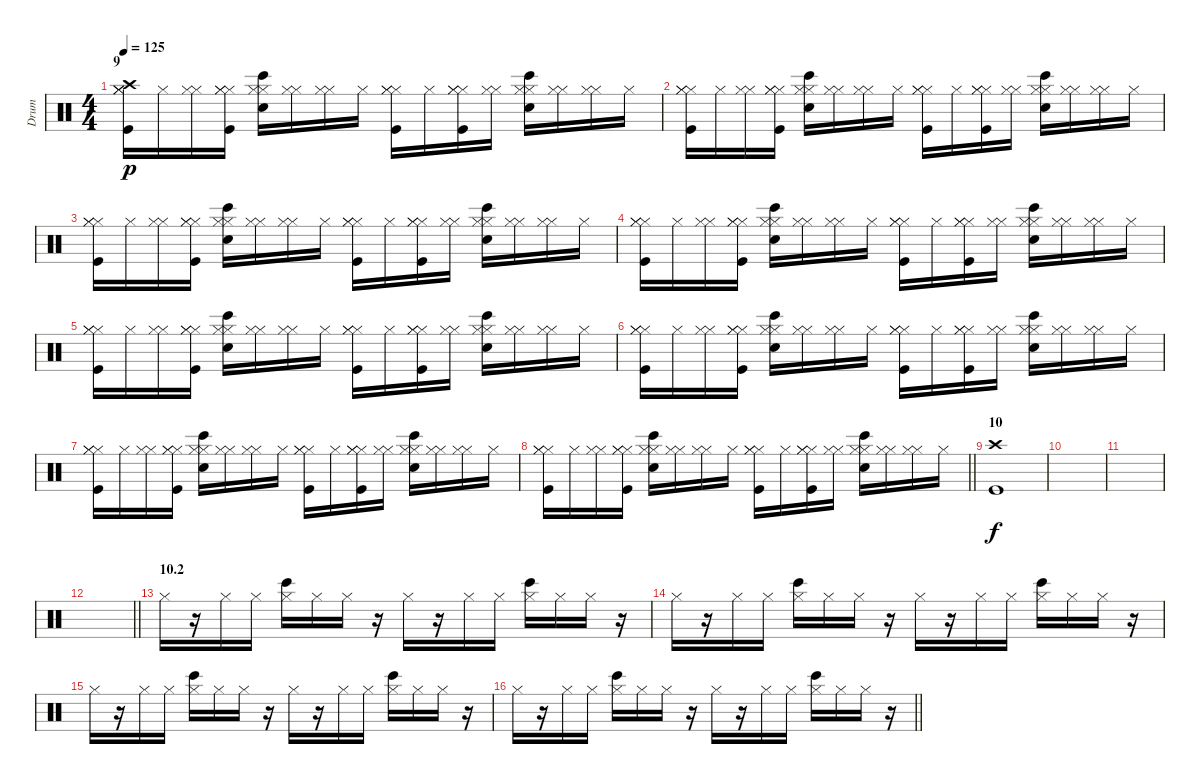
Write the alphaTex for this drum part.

\track ("Drum" "Drum") {instrument percussion}
\staff {score}
\articulation defaults
\ts (4 4)
\section ("" "9")
\tempo 125
\clef neutral
\ks c
("Hi-Hat (closed)" "Kick (hit)" "Hi-Hat (closed)" "Crash high (hit)" "Hi-Hat (closed)").16{dy p} "Hi-Hat (closed)".16 ("Hi-Hat (closed)" "Hi-Hat (closed)").16 ("Hi-Hat (closed)" "Kick (hit)" "Hi-Hat (closed)" "Hi-Hat (closed)").16 ("Snare (hit) 2" "Bongo High (hit)" "Hi-Hat (closed)" "Hi-Hat (closed)").16 ("Hi-Hat (closed)" "Hi-Hat (closed)").16 ("Hi-Hat (closed)" "Hi-Hat (closed)").16 "Hi-Hat (closed)".16 ("Hi-Hat (closed)" "Kick (hit)" "Hi-Hat (closed)" "Hi-Hat (closed)").16 "Hi-Hat (closed)".16 ("Hi-Hat (closed)" "Kick (hit)" "Hi-Hat (closed)" "Hi-Hat (closed)").16 ("Hi-Hat (closed)" "Hi-Hat (closed)").16 ("Snare (hit) 2" "Bongo High (hit)" "Hi-Hat (closed)" "Hi-Hat (closed)").16 ("Hi-Hat (closed)" "Hi-Hat (closed)").16 ("Hi-Hat (closed)" "Hi-Hat (closed)").16 "Hi-Hat (closed)".16 |
("Hi-Hat (closed)" "Kick (hit)" "Hi-Hat (closed)" "Hi-Hat (closed)").16 "Hi-Hat (closed)".16 ("Hi-Hat (closed)" "Hi-Hat (closed)").16 ("Hi-Hat (closed)" "Kick (hit)" "Hi-Hat (closed)" "Hi-Hat (closed)").16 ("Snare (hit) 2" "Bongo High (hit)" "Hi-Hat (closed)" "Hi-Hat (closed)").16 ("Hi-Hat (closed)" "Hi-Hat (closed)").16 ("Hi-Hat (closed)" "Hi-Hat (closed)").16 "Hi-Hat (closed)".16 ("Hi-Hat (closed)" "Kick (hit)" "Hi-Hat (closed)" "Hi-Hat (closed)").16 "Hi-Hat (closed)".16 ("Hi-Hat (closed)" "Kick (hit)" "Hi-Hat (closed)" "Hi-Hat (closed)").16 ("Hi-Hat (closed)" "Hi-Hat (closed)").16 ("Snare (hit) 2" "Bongo High (hit)" "Hi-Hat (closed)" "Hi-Hat (closed)").16 ("Hi-Hat (closed)" "Hi-Hat (closed)").16 ("Hi-Hat (closed)" "Hi-Hat (closed)").16 "Hi-Hat (closed)".16 |
("Hi-Hat (closed)" "Kick (hit)" "Hi-Hat (closed)" "Hi-Hat (closed)").16 "Hi-Hat (closed)".16 ("Hi-Hat (closed)" "Hi-Hat (closed)").16 ("Hi-Hat (closed)" "Kick (hit)" "Hi-Hat (closed)" "Hi-Hat (closed)").16 ("Snare (hit) 2" "Bongo High (hit)" "Hi-Hat (closed)" "Hi-Hat (closed)").16 ("Hi-Hat (closed)" "Hi-Hat (closed)").16 ("Hi-Hat (closed)" "Hi-Hat (closed)").16 "Hi-Hat (closed)".16 ("Hi-Hat (closed)" "Kick (hit)" "Hi-Hat (closed)" "Hi-Hat (closed)").16 "Hi-Hat (closed)".16 ("Hi-Hat (closed)" "Kick (hit)" "Hi-Hat (closed)" "Hi-Hat (closed)").16 ("Hi-Hat (closed)" "Hi-Hat (closed)").16 ("Snare (hit) 2" "Bongo High (hit)" "Hi-Hat (closed)" "Hi-Hat (closed)").16 ("Hi-Hat (closed)" "Hi-Hat (closed)").16 ("Hi-Hat (closed)" "Hi-Hat (closed)").16 "Hi-Hat (closed)".16 |
("Hi-Hat (closed)" "Kick (hit)" "Hi-Hat (closed)" "Hi-Hat (closed)").16 "Hi-Hat (closed)".16 ("Hi-Hat (closed)" "Hi-Hat (closed)").16 ("Hi-Hat (closed)" "Kick (hit)" "Hi-Hat (closed)" "Hi-Hat (closed)").16 ("Snare (hit) 2" "Bongo High (hit)" "Hi-Hat (closed)" "Hi-Hat (closed)").16 ("Hi-Hat (closed)" "Hi-Hat (closed)").16 ("Hi-Hat (closed)" "Hi-Hat (closed)").16 "Hi-Hat (closed)".16 ("Hi-Hat (closed)" "Kick (hit)" "Hi-Hat (closed)" "Hi-Hat (closed)").16 "Hi-Hat (closed)".16 ("Hi-Hat (closed)" "Kick (hit)" "Hi-Hat (closed)" "Hi-Hat (closed)").16 ("Hi-Hat (closed)" "Hi-Hat (closed)").16 ("Snare (hit) 2" "Bongo High (hit)" "Hi-Hat (closed)" "Hi-Hat (closed)").16 ("Hi-Hat (closed)" "Hi-Hat (closed)").16 ("Hi-Hat (closed)" "Hi-Hat (closed)").16 "Hi-Hat (closed)".16 |
("Hi-Hat (closed)" "Kick (hit)" "Hi-Hat (closed)" "Hi-Hat (closed)").16 "Hi-Hat (closed)".16 ("Hi-Hat (closed)" "Hi-Hat (closed)").16 ("Hi-Hat (closed)" "Kick (hit)" "Hi-Hat (closed)" "Hi-Hat (closed)").16 ("Snare (hit) 2" "Bongo High (hit)" "Hi-Hat (closed)" "Hi-Hat (closed)").16 ("Hi-Hat (closed)" "Hi-Hat (closed)").16 ("Hi-Hat (closed)" "Hi-Hat (closed)").16 "Hi-Hat (closed)".16 ("Hi-Hat (closed)" "Kick (hit)" "Hi-Hat (closed)" "Hi-Hat (closed)").16 "Hi-Hat (closed)".16 ("Hi-Hat (closed)" "Kick (hit)" "Hi-Hat (closed)" "Hi-Hat (closed)").16 ("Hi-Hat (closed)" "Hi-Hat (closed)").16 ("Snare (hit) 2" "Bongo High (hit)" "Hi-Hat (closed)" "Hi-Hat (closed)").16 ("Hi-Hat (closed)" "Hi-Hat (closed)").16 ("Hi-Hat (closed)" "Hi-Hat (closed)").16 "Hi-Hat (closed)".16 |
("Hi-Hat (closed)" "Kick (hit)" "Hi-Hat (closed)" "Hi-Hat (closed)").16 "Hi-Hat (closed)".16 ("Hi-Hat (closed)" "Hi-Hat (closed)").16 ("Hi-Hat (closed)" "Kick (hit)" "Hi-Hat (closed)" "Hi-Hat (closed)").16 ("Snare (hit) 2" "Bongo High (hit)" "Hi-Hat (closed)" "Hi-Hat (closed)").16 ("Hi-Hat (closed)" "Hi-Hat (closed)").16 ("Hi-Hat (closed)" "Hi-Hat (closed)").16 "Hi-Hat (closed)".16 ("Hi-Hat (closed)" "Kick (hit)" "Hi-Hat (closed)" "Hi-Hat (closed)").16 "Hi-Hat (closed)".16 ("Hi-Hat (closed)" "Kick (hit)" "Hi-Hat (closed)" "Hi-Hat (closed)").16 ("Hi-Hat (closed)" "Hi-Hat (closed)").16 ("Snare (hit) 2" "Bongo High (hit)" "Hi-Hat (closed)" "Hi-Hat (closed)").16 ("Hi-Hat (closed)" "Hi-Hat (closed)").16 ("Hi-Hat (closed)" "Hi-Hat (closed)").16 "Hi-Hat (closed)".16 |
("Hi-Hat (closed)" "Kick (hit)" "Hi-Hat (closed)" "Hi-Hat (closed)").16 "Hi-Hat (closed)".16 ("Hi-Hat (closed)" "Hi-Hat (closed)").16 ("Hi-Hat (closed)" "Kick (hit)" "Hi-Hat (closed)" "Hi-Hat (closed)").16 ("Snare (hit) 2" "Bongo High (hit)" "Hi-Hat (closed)" "Hi-Hat (closed)").16 ("Hi-Hat (closed)" "Hi-Hat (closed)").16 ("Hi-Hat (closed)" "Hi-Hat (closed)").16 "Hi-Hat (closed)".16 ("Hi-Hat (closed)" "Kick (hit)" "Hi-Hat (closed)" "Hi-Hat (closed)").16 "Hi-Hat (closed)".16 ("Hi-Hat (closed)" "Kick (hit)" "Hi-Hat (closed)" "Hi-Hat (closed)").16 ("Hi-Hat (closed)" "Hi-Hat (closed)").16 ("Snare (hit) 2" "Bongo High (hit)" "Hi-Hat (closed)" "Hi-Hat (closed)").16 ("Hi-Hat (closed)" "Hi-Hat (closed)").16 ("Hi-Hat (closed)" "Hi-Hat (closed)").16 "Hi-Hat (closed)".16 |
\barLineRight lightlight
("Hi-Hat (closed)" "Kick (hit)" "Hi-Hat (closed)" "Hi-Hat (closed)").16 "Hi-Hat (closed)".16 ("Hi-Hat (closed)" "Hi-Hat (closed)").16 ("Hi-Hat (closed)" "Kick (hit)" "Hi-Hat (closed)" "Hi-Hat (closed)").16 ("Snare (hit) 2" "Bongo High (hit)" "Hi-Hat (closed)" "Hi-Hat (closed)").16 ("Hi-Hat (closed)" "Hi-Hat (closed)").16 ("Hi-Hat (closed)" "Hi-Hat (closed)").16 "Hi-Hat (closed)".16 ("Hi-Hat (closed)" "Kick (hit)" "Hi-Hat (closed)" "Hi-Hat (closed)").16 "Hi-Hat (closed)".16 ("Hi-Hat (closed)" "Kick (hit)" "Hi-Hat (closed)" "Hi-Hat (closed)").16 ("Hi-Hat (closed)" "Hi-Hat (closed)").16 ("Snare (hit) 2" "Bongo High (hit)" "Hi-Hat (closed)" "Hi-Hat (closed)").16 ("Hi-Hat (closed)" "Hi-Hat (closed)").16 ("Hi-Hat (closed)" "Hi-Hat (closed)").16 "Hi-Hat (closed)".16 |
\section ("" "10")
("Kick (hit)" "Crash high (hit)").1{dy f} |
|
|
\barLineRight lightlight
|
\section ("" "10.2")
"Hi-Hat (closed)".16 r.16 "Hi-Hat (closed)".16 "Hi-Hat (closed)".16 ("Bongo High (hit)" "Hi-Hat (closed)").16 "Hi-Hat (closed)".16 "Hi-Hat (closed)".16 r.16 "Hi-Hat (closed)".16 r.16 "Hi-Hat (closed)".16 "Hi-Hat (closed)".16 ("Bongo High (hit)" "Hi-Hat (closed)").16 "Hi-Hat (closed)".16 "Hi-Hat (closed)".16 r.16 |
"Hi-Hat (closed)".16 r.16 "Hi-Hat (closed)".16 "Hi-Hat (closed)".16 ("Bongo High (hit)" "Hi-Hat (closed)").16 "Hi-Hat (closed)".16 "Hi-Hat (closed)".16 r.16 "Hi-Hat (closed)".16 r.16 "Hi-Hat (closed)".16 "Hi-Hat (closed)".16 ("Bongo High (hit)" "Hi-Hat (closed)").16 "Hi-Hat (closed)".16 "Hi-Hat (closed)".16 r.16 |
"Hi-Hat (closed)".16 r.16 "Hi-Hat (closed)".16 "Hi-Hat (closed)".16 ("Bongo High (hit)" "Hi-Hat (closed)").16 "Hi-Hat (closed)".16 "Hi-Hat (closed)".16 r.16 "Hi-Hat (closed)".16 r.16 "Hi-Hat (closed)".16 "Hi-Hat (closed)".16 ("Bongo High (hit)" "Hi-Hat (closed)").16 "Hi-Hat (closed)".16 "Hi-Hat (closed)".16 r.16 |
\barLineRight lightlight "Hi-Hat (closed)".16
r.16 "Hi-Hat (closed)".16 "Hi-Hat (closed)".16 ("Bongo High (hit)" "Hi-Hat (closed)").16 "Hi-Hat (closed)".16 "Hi-Hat (closed)".16 r.16 "Hi-Hat (closed)".16 r.16 "Hi-Hat (closed)".16 "Hi-Hat (closed)".16 ("Bongo High (hit)" "Hi-Hat (closed)").16 "Hi-Hat (closed)".16 "Hi-Hat (closed)".16 r.16
